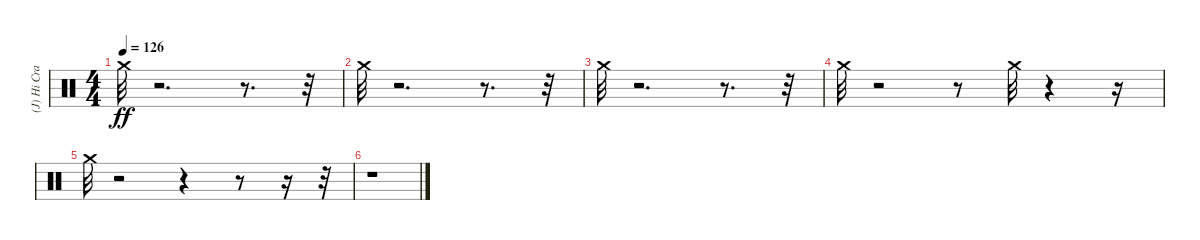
\track ("(J) Hi Crash Cymbal" "(J) Hi Cra") {instrument percussion}
\staff {score}
\articulation defaults
\ts (4 4)
\tempo 126
\clef neutral
\ks c "Crash medium (hit)".32{dy ff}
r.2{d} r.8{d} r.32 |
"Crash medium (hit)".32 r.2{d} r.8{d} r.32 |
"Crash medium (hit)".32 r.2{d} r.8{d} r.32 |
"Crash medium (hit)".32 r.2 r.8 "Crash medium (hit)".32 r.4 r.16 |
"Crash medium (hit)".32 r.2 r.4 r.8 r.16 r.32 |
r.1
